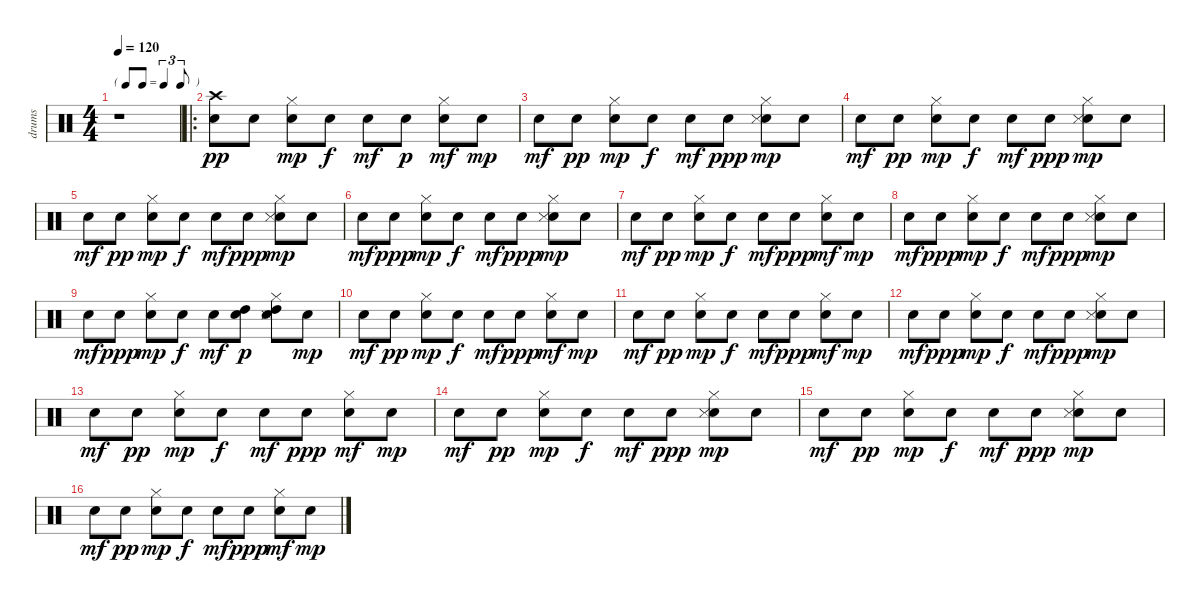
\track ("drums" "drums") {instrument percussion}
\staff {score}
\articulation defaults
\ts (4 4)
\tf triplet8th
\tempo 120
\clef neutral
\ks c
r.1{dy pp} |
\ro
("Snare (hit) 2" "Crash high (hit)").8 "Snare (hit) 2".8 ("Snare (hit) 2" "Hi-Hat (closed)").8{dy mp} "Snare (hit) 2".8{dy f} "Snare (hit) 2".8{dy mf} "Snare (hit) 2".8{dy p} ("Snare (hit) 2" "Hi-Hat (closed)").8{dy mf} "Snare (hit) 2".8{dy mp} |
"Snare (hit) 2".8{dy mf} "Snare (hit) 2".8{dy pp} ("Snare (hit) 2" "Hi-Hat (closed)").8{dy mp} "Snare (hit) 2".8{dy f} "Snare (hit) 2".8{dy mf} "Snare (hit) 2".8{dy ppp} ("Snare (hit) 2" "Hi-Hat (closed)" "Snare (side stick) 3").8{dy mp} "Snare (hit) 2".8 |
"Snare (hit) 2".8{dy mf} "Snare (hit) 2".8{dy pp} ("Snare (hit) 2" "Hi-Hat (closed)").8{dy mp} "Snare (hit) 2".8{dy f} "Snare (hit) 2".8{dy mf} "Snare (hit) 2".8{dy ppp} ("Snare (hit) 2" "Hi-Hat (closed)" "Snare (side stick) 3").8{dy mp} "Snare (hit) 2".8 |
"Snare (hit) 2".8{dy mf} "Snare (hit) 2".8{dy pp} ("Snare (hit) 2" "Hi-Hat (closed)").8{dy mp} "Snare (hit) 2".8{dy f} "Snare (hit) 2".8{dy mf} "Snare (hit) 2".8{dy ppp} ("Snare (hit) 2" "Hi-Hat (closed)" "Snare (side stick) 3").8{dy mp} "Snare (hit) 2".8 |
"Snare (hit) 2".8{dy mf} "Snare (hit) 2".8{dy ppp} ("Snare (hit) 2" "Hi-Hat (closed)").8{dy mp} "Snare (hit) 2".8{dy f} "Snare (hit) 2".8{dy mf} "Snare (hit) 2".8{dy ppp} ("Snare (hit) 2" "Hi-Hat (closed)" "Snare (side stick) 3").8{dy mp} "Snare (hit) 2".8 |
"Snare (hit) 2".8{dy mf} "Snare (hit) 2".8{dy pp} ("Snare (hit) 2" "Hi-Hat (closed)").8{dy mp} "Snare (hit) 2".8{dy f} "Snare (hit) 2".8{dy mf} "Snare (hit) 2".8{dy ppp} ("Snare (hit) 2" "Hi-Hat (closed)").8{dy mf} "Snare (hit) 2".8{dy mp} |
"Snare (hit) 2".8{dy mf} "Snare (hit) 2".8{dy ppp} ("Snare (hit) 2" "Hi-Hat (closed)").8{dy mp} "Snare (hit) 2".8{dy f} "Snare (hit) 2".8{dy mf} "Snare (hit) 2".8{dy ppp} ("Snare (hit) 2" "Hi-Hat (closed)" "Snare (side stick) 3").8{dy mp} "Snare (hit) 2".8 |
"Snare (hit) 2".8{dy mf} "Snare (hit) 2".8{dy ppp} ("Snare (hit) 2" "Hi-Hat (closed)").8{dy mp} "Snare (hit) 2".8{dy f} "Snare (hit) 2".8{dy mf} ("Snare (hit) 2" "High Tom (hit)").8{dy p} ("Snare (hit) 2" "Hi-Hat (closed)" "Snare (side stick) 3" "High Tom (hit)").8 "Snare (hit) 2".8{dy mp} |
"Snare (hit) 2".8{dy mf} "Snare (hit) 2".8{dy pp} ("Snare (hit) 2" "Hi-Hat (closed)").8{dy mp} "Snare (hit) 2".8{dy f} "Snare (hit) 2".8{dy mf} "Snare (hit) 2".8{dy ppp} ("Snare (hit) 2" "Hi-Hat (closed)").8{dy mf} "Snare (hit) 2".8{dy mp} |
"Snare (hit) 2".8{dy mf} "Snare (hit) 2".8{dy pp} ("Snare (hit) 2" "Hi-Hat (closed)").8{dy mp} "Snare (hit) 2".8{dy f} "Snare (hit) 2".8{dy mf} "Snare (hit) 2".8{dy ppp} ("Snare (hit) 2" "Hi-Hat (closed)").8{dy mf} "Snare (hit) 2".8{dy mp} |
"Snare (hit) 2".8{dy mf} "Snare (hit) 2".8{dy ppp} ("Snare (hit) 2" "Hi-Hat (closed)").8{dy mp} "Snare (hit) 2".8{dy f} "Snare (hit) 2".8{dy mf} "Snare (hit) 2".8{dy ppp} ("Snare (hit) 2" "Hi-Hat (closed)" "Snare (side stick) 3").8{dy mp} "Snare (hit) 2".8 |
"Snare (hit) 2".8{dy mf} "Snare (hit) 2".8{dy pp} ("Snare (hit) 2" "Hi-Hat (closed)").8{dy mp} "Snare (hit) 2".8{dy f} "Snare (hit) 2".8{dy mf} "Snare (hit) 2".8{dy ppp} ("Snare (hit) 2" "Hi-Hat (closed)").8{dy mf} "Snare (hit) 2".8{dy mp} |
"Snare (hit) 2".8{dy mf} "Snare (hit) 2".8{dy pp} ("Snare (hit) 2" "Hi-Hat (closed)").8{dy mp} "Snare (hit) 2".8{dy f} "Snare (hit) 2".8{dy mf} "Snare (hit) 2".8{dy ppp} ("Snare (hit) 2" "Hi-Hat (closed)" "Snare (side stick) 3").8{dy mp} "Snare (hit) 2".8 |
"Snare (hit) 2".8{dy mf} "Snare (hit) 2".8{dy pp} ("Snare (hit) 2" "Hi-Hat (closed)").8{dy mp} "Snare (hit) 2".8{dy f} "Snare (hit) 2".8{dy mf} "Snare (hit) 2".8{dy ppp} ("Snare (hit) 2" "Hi-Hat (closed)" "Snare (side stick) 3").8{dy mp} "Snare (hit) 2".8 |
"Snare (hit) 2".8{dy mf} "Snare (hit) 2".8{dy pp} ("Snare (hit) 2" "Hi-Hat (closed)").8{dy mp} "Snare (hit) 2".8{dy f} "Snare (hit) 2".8{dy mf} "Snare (hit) 2".8{dy ppp} ("Snare (hit) 2" "Hi-Hat (closed)").8{dy mf} "Snare (hit) 2".8{dy mp}
